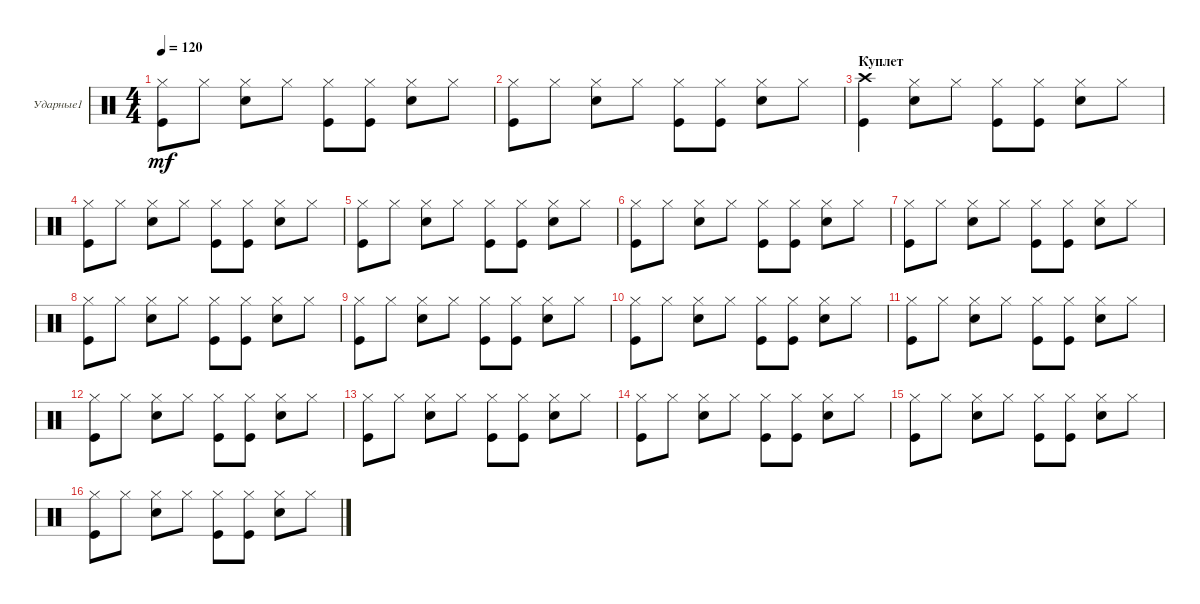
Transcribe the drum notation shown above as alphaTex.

\defaultSystemsLayout 4
\bracketExtendMode groupsimilarinstruments
\firstSystemTrackNameOrientation horizontal
\otherSystemsTrackNameOrientation horizontal
\track ("Е.Кулаков" "Ударные1") {instrument percussion}
\staff {score}
\articulation defaults
\ts (4 4)
\tempo 120
\clef neutral
\ks c
("Hi-Hat (closed)" "Kick (hit)").8{dy mf} "Hi-Hat (closed)".8 ("Hi-Hat (closed)" "Snare (hit) 2").8 "Hi-Hat (closed)".8 ("Hi-Hat (closed)" "Kick (hit)").8 ("Hi-Hat (closed)" "Kick (hit)").8 ("Hi-Hat (closed)" "Snare (hit) 2").8 "Hi-Hat (closed)".8 |
("Hi-Hat (closed)" "Kick (hit)").8 "Hi-Hat (closed)".8 ("Hi-Hat (closed)" "Snare (hit) 2").8 "Hi-Hat (closed)".8 ("Hi-Hat (closed)" "Kick (hit)").8 ("Hi-Hat (closed)" "Kick (hit)").8 ("Hi-Hat (closed)" "Snare (hit) 2").8 "Hi-Hat (closed)".8 |
\section ("" "Куплет")
("Crash high (hit)" "Kick (hit)").4 ("Hi-Hat (closed)" "Snare (hit) 2").8 "Hi-Hat (closed)".8 ("Hi-Hat (closed)" "Kick (hit)").8 ("Hi-Hat (closed)" "Kick (hit)").8 ("Hi-Hat (closed)" "Snare (hit) 2").8 "Hi-Hat (closed)".8 |
("Hi-Hat (closed)" "Kick (hit)").8 "Hi-Hat (closed)".8 ("Hi-Hat (closed)" "Snare (hit) 2").8 "Hi-Hat (closed)".8 ("Hi-Hat (closed)" "Kick (hit)").8 ("Hi-Hat (closed)" "Kick (hit)").8 ("Hi-Hat (closed)" "Snare (hit) 2").8 "Hi-Hat (closed)".8 |
("Hi-Hat (closed)" "Kick (hit)").8 "Hi-Hat (closed)".8 ("Hi-Hat (closed)" "Snare (hit) 2").8 "Hi-Hat (closed)".8 ("Hi-Hat (closed)" "Kick (hit)").8 ("Hi-Hat (closed)" "Kick (hit)").8 ("Hi-Hat (closed)" "Snare (hit) 2").8 "Hi-Hat (closed)".8 |
("Hi-Hat (closed)" "Kick (hit)").8 "Hi-Hat (closed)".8 ("Hi-Hat (closed)" "Snare (hit) 2").8 "Hi-Hat (closed)".8 ("Hi-Hat (closed)" "Kick (hit)").8 ("Hi-Hat (closed)" "Kick (hit)").8 ("Hi-Hat (closed)" "Snare (hit) 2").8 "Hi-Hat (closed)".8 |
("Hi-Hat (closed)" "Kick (hit)").8 "Hi-Hat (closed)".8 ("Hi-Hat (closed)" "Snare (hit) 2").8 "Hi-Hat (closed)".8 ("Hi-Hat (closed)" "Kick (hit)").8 ("Hi-Hat (closed)" "Kick (hit)").8 ("Hi-Hat (closed)" "Snare (hit) 2").8 "Hi-Hat (closed)".8 |
("Hi-Hat (closed)" "Kick (hit)").8 "Hi-Hat (closed)".8 ("Hi-Hat (closed)" "Snare (hit) 2").8 "Hi-Hat (closed)".8 ("Hi-Hat (closed)" "Kick (hit)").8 ("Hi-Hat (closed)" "Kick (hit)").8 ("Hi-Hat (closed)" "Snare (hit) 2").8 "Hi-Hat (closed)".8 |
("Hi-Hat (closed)" "Kick (hit)").8 "Hi-Hat (closed)".8 ("Hi-Hat (closed)" "Snare (hit) 2").8 "Hi-Hat (closed)".8 ("Hi-Hat (closed)" "Kick (hit)").8 ("Hi-Hat (closed)" "Kick (hit)").8 ("Hi-Hat (closed)" "Snare (hit) 2").8 "Hi-Hat (closed)".8 |
("Hi-Hat (closed)" "Kick (hit)").8 "Hi-Hat (closed)".8 ("Hi-Hat (closed)" "Snare (hit) 2").8 "Hi-Hat (closed)".8 ("Hi-Hat (closed)" "Kick (hit)").8 ("Hi-Hat (closed)" "Kick (hit)").8 ("Hi-Hat (closed)" "Snare (hit) 2").8 "Hi-Hat (closed)".8 |
("Hi-Hat (closed)" "Kick (hit)").8 "Hi-Hat (closed)".8 ("Hi-Hat (closed)" "Snare (hit) 2").8 "Hi-Hat (closed)".8 ("Hi-Hat (closed)" "Kick (hit)").8 ("Hi-Hat (closed)" "Kick (hit)").8 ("Hi-Hat (closed)" "Snare (hit) 2").8 "Hi-Hat (closed)".8 |
("Hi-Hat (closed)" "Kick (hit)").8 "Hi-Hat (closed)".8 ("Hi-Hat (closed)" "Snare (hit) 2").8 "Hi-Hat (closed)".8 ("Hi-Hat (closed)" "Kick (hit)").8 ("Hi-Hat (closed)" "Kick (hit)").8 ("Hi-Hat (closed)" "Snare (hit) 2").8 "Hi-Hat (closed)".8 |
("Hi-Hat (closed)" "Kick (hit)").8 "Hi-Hat (closed)".8 ("Hi-Hat (closed)" "Snare (hit) 2").8 "Hi-Hat (closed)".8 ("Hi-Hat (closed)" "Kick (hit)").8 ("Hi-Hat (closed)" "Kick (hit)").8 ("Hi-Hat (closed)" "Snare (hit) 2").8 "Hi-Hat (closed)".8 |
("Hi-Hat (closed)" "Kick (hit)").8 "Hi-Hat (closed)".8 ("Hi-Hat (closed)" "Snare (hit) 2").8 "Hi-Hat (closed)".8 ("Hi-Hat (closed)" "Kick (hit)").8 ("Hi-Hat (closed)" "Kick (hit)").8 ("Hi-Hat (closed)" "Snare (hit) 2").8 "Hi-Hat (closed)".8 |
("Hi-Hat (closed)" "Kick (hit)").8 "Hi-Hat (closed)".8 ("Hi-Hat (closed)" "Snare (hit) 2").8 "Hi-Hat (closed)".8 ("Hi-Hat (closed)" "Kick (hit)").8 ("Hi-Hat (closed)" "Kick (hit)").8 ("Hi-Hat (closed)" "Snare (hit) 2").8 "Hi-Hat (closed)".8 |
("Hi-Hat (closed)" "Kick (hit)").8 "Hi-Hat (closed)".8 ("Hi-Hat (closed)" "Snare (hit) 2").8 "Hi-Hat (closed)".8 ("Hi-Hat (closed)" "Kick (hit)").8 ("Hi-Hat (closed)" "Kick (hit)").8 ("Hi-Hat (closed)" "Snare (hit) 2").8 "Hi-Hat (closed)".8
